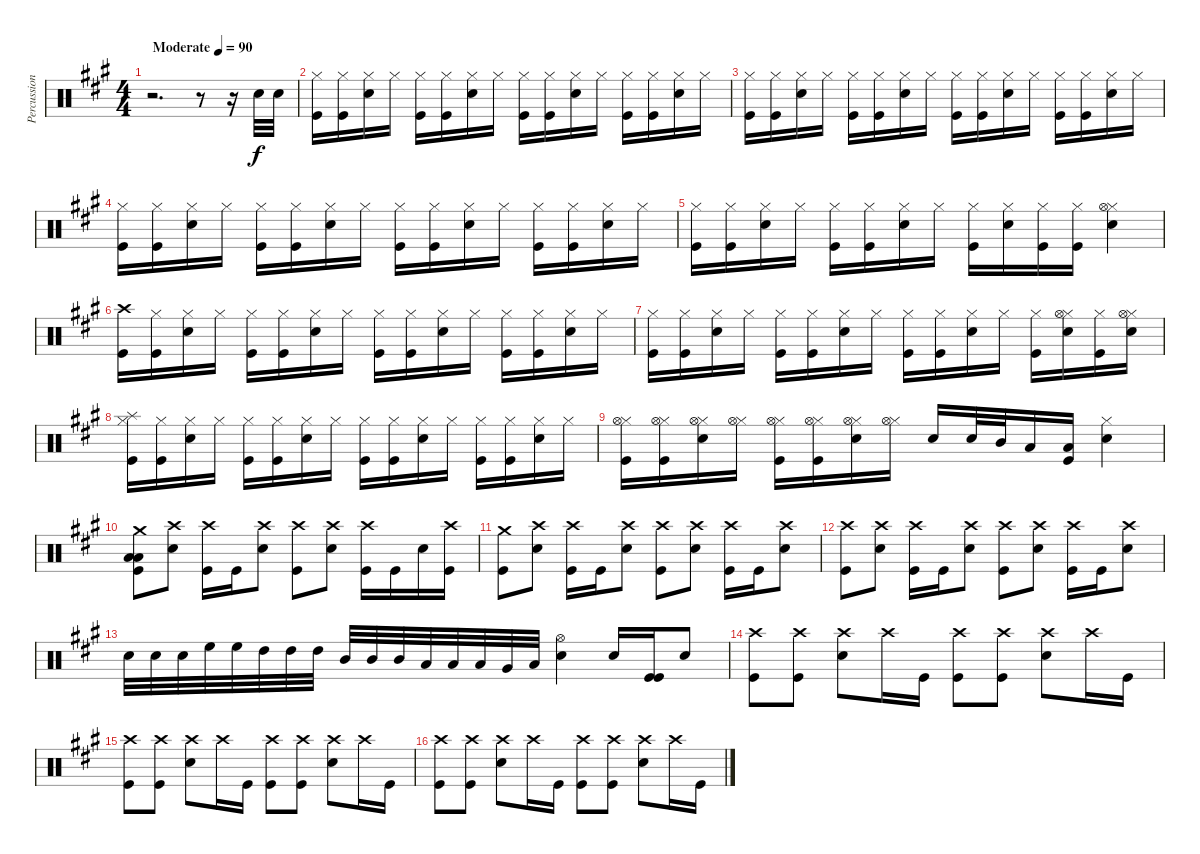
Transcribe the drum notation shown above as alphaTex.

\track ("Percussion" "Percussion") {instrument percussion}
\staff {score}
\articulation defaults
\ts (4 4)
\tempo (90 "Moderate")
\clef neutral
\ks a
r.2{d dy f} r.8 r.16 "Snare (hit) 2".32 "Snare (hit) 2".32 |
("Hi-Hat (closed)" "Kick (hit)").16 ("Hi-Hat (closed)" "Kick (hit)").16 ("Hi-Hat (closed)" "Snare (hit) 2").16 "Hi-Hat (closed)".16 ("Hi-Hat (closed)" "Kick (hit)").16 ("Hi-Hat (closed)" "Kick (hit)").16 ("Hi-Hat (closed)" "Snare (hit) 2").16 "Hi-Hat (closed)".16 ("Hi-Hat (closed)" "Kick (hit)").16 ("Hi-Hat (closed)" "Kick (hit)").16 ("Hi-Hat (closed)" "Snare (hit) 2").16 "Hi-Hat (closed)".16 ("Hi-Hat (closed)" "Kick (hit)").16 ("Hi-Hat (closed)" "Kick (hit)").16 ("Hi-Hat (closed)" "Snare (hit) 2").16 "Hi-Hat (closed)".16 |
("Hi-Hat (closed)" "Kick (hit)").16 ("Hi-Hat (closed)" "Kick (hit)").16 ("Hi-Hat (closed)" "Snare (hit) 2").16 "Hi-Hat (closed)".16 ("Hi-Hat (closed)" "Kick (hit)").16 ("Hi-Hat (closed)" "Kick (hit)").16 ("Hi-Hat (closed)" "Snare (hit) 2").16 "Hi-Hat (closed)".16 ("Hi-Hat (closed)" "Kick (hit)").16 ("Hi-Hat (closed)" "Kick (hit)").16 ("Hi-Hat (closed)" "Snare (hit) 2").16 "Hi-Hat (closed)".16 ("Hi-Hat (closed)" "Kick (hit)").16 ("Hi-Hat (closed)" "Kick (hit)").16 ("Hi-Hat (closed)" "Snare (hit) 2").16 "Hi-Hat (closed)".16 |
("Hi-Hat (closed)" "Kick (hit)").16 ("Hi-Hat (closed)" "Kick (hit)").16 ("Hi-Hat (closed)" "Snare (hit) 2").16 "Hi-Hat (closed)".16 ("Hi-Hat (closed)" "Kick (hit)").16 ("Hi-Hat (closed)" "Kick (hit)").16 ("Hi-Hat (closed)" "Snare (hit) 2").16 "Hi-Hat (closed)".16 ("Hi-Hat (closed)" "Kick (hit)").16 ("Hi-Hat (closed)" "Kick (hit)").16 ("Hi-Hat (closed)" "Snare (hit) 2").16 "Hi-Hat (closed)".16 ("Hi-Hat (closed)" "Kick (hit)").16 ("Hi-Hat (closed)" "Kick (hit)").16 ("Hi-Hat (closed)" "Snare (hit) 2").16 "Hi-Hat (closed)".16 |
("Hi-Hat (closed)" "Kick (hit)").16 ("Hi-Hat (closed)" "Kick (hit)").16 ("Hi-Hat (closed)" "Snare (hit) 2").16 "Hi-Hat (closed)".16 ("Hi-Hat (closed)" "Kick (hit)").16 ("Hi-Hat (closed)" "Kick (hit)").16 ("Hi-Hat (closed)" "Snare (hit) 2").16 "Hi-Hat (closed)".16 ("Hi-Hat (closed)" "Kick (hit)").16 ("Hi-Hat (closed)" "Snare (hit) 2").16 ("Hi-Hat (closed)" "Kick (hit)").16 ("Hi-Hat (closed)" "Kick (hit)").16 ("Hi-Hat (closed)" "Snare (hit) 2" "Hi-Hat (open)").4 |
("Crash high (hit)" "Kick (hit)").16 ("Hi-Hat (closed)" "Kick (hit)").16 ("Hi-Hat (closed)" "Snare (hit) 2").16 "Hi-Hat (closed)".16 ("Hi-Hat (closed)" "Kick (hit)").16 ("Hi-Hat (closed)" "Kick (hit)").16 ("Hi-Hat (closed)" "Snare (hit) 2").16 "Hi-Hat (closed)".16 ("Hi-Hat (closed)" "Kick (hit)").16 ("Hi-Hat (closed)" "Kick (hit)").16 ("Hi-Hat (closed)" "Snare (hit) 2").16 "Hi-Hat (closed)".16 ("Hi-Hat (closed)" "Kick (hit)").16 ("Hi-Hat (closed)" "Kick (hit)").16 ("Hi-Hat (closed)" "Snare (hit) 2").16 "Hi-Hat (closed)".16 |
("Hi-Hat (closed)" "Kick (hit)").16 ("Hi-Hat (closed)" "Kick (hit)").16 ("Hi-Hat (closed)" "Snare (hit) 2").16 "Hi-Hat (closed)".16 ("Hi-Hat (closed)" "Kick (hit)").16 ("Hi-Hat (closed)" "Kick (hit)").16 ("Hi-Hat (closed)" "Snare (hit) 2").16 "Hi-Hat (closed)".16 ("Hi-Hat (closed)" "Kick (hit)").16 ("Hi-Hat (closed)" "Kick (hit)").16 ("Hi-Hat (closed)" "Snare (hit) 2").16 "Hi-Hat (closed)".16 ("Hi-Hat (closed)" "Kick (hit)").16 ("Hi-Hat (closed)" "Snare (hit) 2" "Hi-Hat (open)").16 ("Hi-Hat (closed)" "Kick (hit)").16 ("Hi-Hat (closed)" "Snare (hit) 2" "Hi-Hat (open)").16 |
("Hi-Hat (closed)" "Kick (hit)" "Splash (hit)").16 ("Hi-Hat (closed)" "Kick (hit)").16 ("Hi-Hat (closed)" "Snare (hit) 2").16 "Hi-Hat (closed)".16 ("Hi-Hat (closed)" "Kick (hit)").16 ("Hi-Hat (closed)" "Kick (hit)").16 ("Hi-Hat (closed)" "Snare (hit) 2").16 "Hi-Hat (closed)".16 ("Hi-Hat (closed)" "Kick (hit)").16 ("Hi-Hat (closed)" "Kick (hit)").16 ("Hi-Hat (closed)" "Snare (hit) 2").16 "Hi-Hat (closed)".16 ("Hi-Hat (closed)" "Kick (hit)").16 ("Hi-Hat (closed)" "Kick (hit)").16 ("Hi-Hat (closed)" "Snare (hit) 2").16 "Hi-Hat (closed)".16 |
("Hi-Hat (closed)" "Kick (hit)" "Hi-Hat (open)").16 ("Hi-Hat (closed)" "Kick (hit)" "Hi-Hat (open)").16 ("Hi-Hat (closed)" "Snare (hit) 2" "Hi-Hat (open)").16 ("Hi-Hat (closed)" "Hi-Hat (open)").16 ("Hi-Hat (closed)" "Kick (hit)" "Hi-Hat (open)").16 ("Hi-Hat (closed)" "Kick (hit)" "Hi-Hat (open)").16 ("Hi-Hat (closed)" "Snare (hit) 2" "Hi-Hat (open)").16 ("Hi-Hat (closed)" "Hi-Hat (open)").16 "Snare (hit) 2".16 "Snare (hit) 2".32 "Mid Tom (hit)".32 "Low Tom (hit)".16 ("Low Floor Tom (hit)" "Kick (hit)").16 ("Snare (hit) 2" "Hi-Hat (closed)").4 |
("Low Tom (hit)" "Low Floor Tom (hit)" "Crash medium (hit)" "Kick (hit)").8 ("Crash high (hit)" "Snare (hit) 2").8 ("Kick (hit)" "Crash high (hit)").16 "Kick (hit)".16 ("Snare (hit) 2" "Crash high (hit)").8 ("Kick (hit)" "Crash high (hit)").8 ("Snare (hit) 2" "Crash high (hit)").8 ("Kick (hit)" "Crash high (hit)").16 "Kick (hit)".16 "Snare (hit) 2".16 ("Kick (hit)" "Crash high (hit)").16 |
("Crash medium (hit)" "Kick (hit)").8 ("Crash high (hit)" "Snare (hit) 2").8 ("Kick (hit)" "Crash high (hit)").16 "Kick (hit)".16 ("Snare (hit) 2" "Crash high (hit)").8 ("Crash high (hit)" "Kick (hit)").8 ("Crash high (hit)" "Snare (hit) 2").8 ("Kick (hit)" "Crash high (hit)").16 "Kick (hit)".16 ("Snare (hit) 2" "Crash high (hit)").8 |
("Crash high (hit)" "Kick (hit)").8 ("Crash high (hit)" "Snare (hit) 2").8 ("Kick (hit)" "Crash high (hit)").16 "Kick (hit)".16 ("Snare (hit) 2" "Crash high (hit)").8 ("Crash high (hit)" "Kick (hit)").8 ("Crash high (hit)" "Snare (hit) 2").8 ("Kick (hit)" "Crash high (hit)").16 "Kick (hit)".16 ("Snare (hit) 2" "Crash high (hit)").8 |
"Snare (hit) 2".32 "Snare (hit) 2".32 "Snare (hit) 2".32 "High Floor Tom (hit)".32 "High Floor Tom (hit)".32 "High Tom (hit)".32 "High Tom (hit)".32 "High Tom (hit)".32 "Mid Tom (hit)".32 "Mid Tom (hit)".32 "Mid Tom (hit)".32 "Low Tom (hit)".32 "Low Tom (hit)".32 "Low Tom (hit)".32 "Very Low Tom (hit)".32 "Low Floor Tom (hit)".32 ("Snare (hit) 2" "Hi-Hat (open)").4 "Snare (hit) 2".16 ("Kick (hit)" "Kick (hit)").16 "Snare (hit) 2".8 |
("Kick (hit)" "Crash high (hit)").8 ("Crash high (hit)" "Kick (hit)").8 ("Snare (hit) 2" "Crash high (hit)").8 "Crash high (hit)".16 "Kick (hit)".16 ("Crash high (hit)" "Kick (hit)").8 ("Kick (hit)" "Crash high (hit)").8 ("Snare (hit) 2" "Crash high (hit)").8 "Crash high (hit)".16 "Kick (hit)".16 |
("Kick (hit)" "Crash high (hit)").8 ("Crash high (hit)" "Kick (hit)").8 ("Snare (hit) 2" "Crash high (hit)").8 "Crash high (hit)".16 "Kick (hit)".16 ("Crash high (hit)" "Kick (hit)").8 ("Kick (hit)" "Crash high (hit)").8 ("Snare (hit) 2" "Crash high (hit)").8 "Crash high (hit)".16 "Kick (hit)".16 |
("Kick (hit)" "Crash high (hit)").8 ("Crash high (hit)" "Kick (hit)").8 ("Snare (hit) 2" "Crash high (hit)").8 "Crash high (hit)".16 "Kick (hit)".16 ("Crash high (hit)" "Kick (hit)").8 ("Kick (hit)" "Crash high (hit)").8 ("Snare (hit) 2" "Crash high (hit)").8 "Crash high (hit)".16 "Kick (hit)".16
